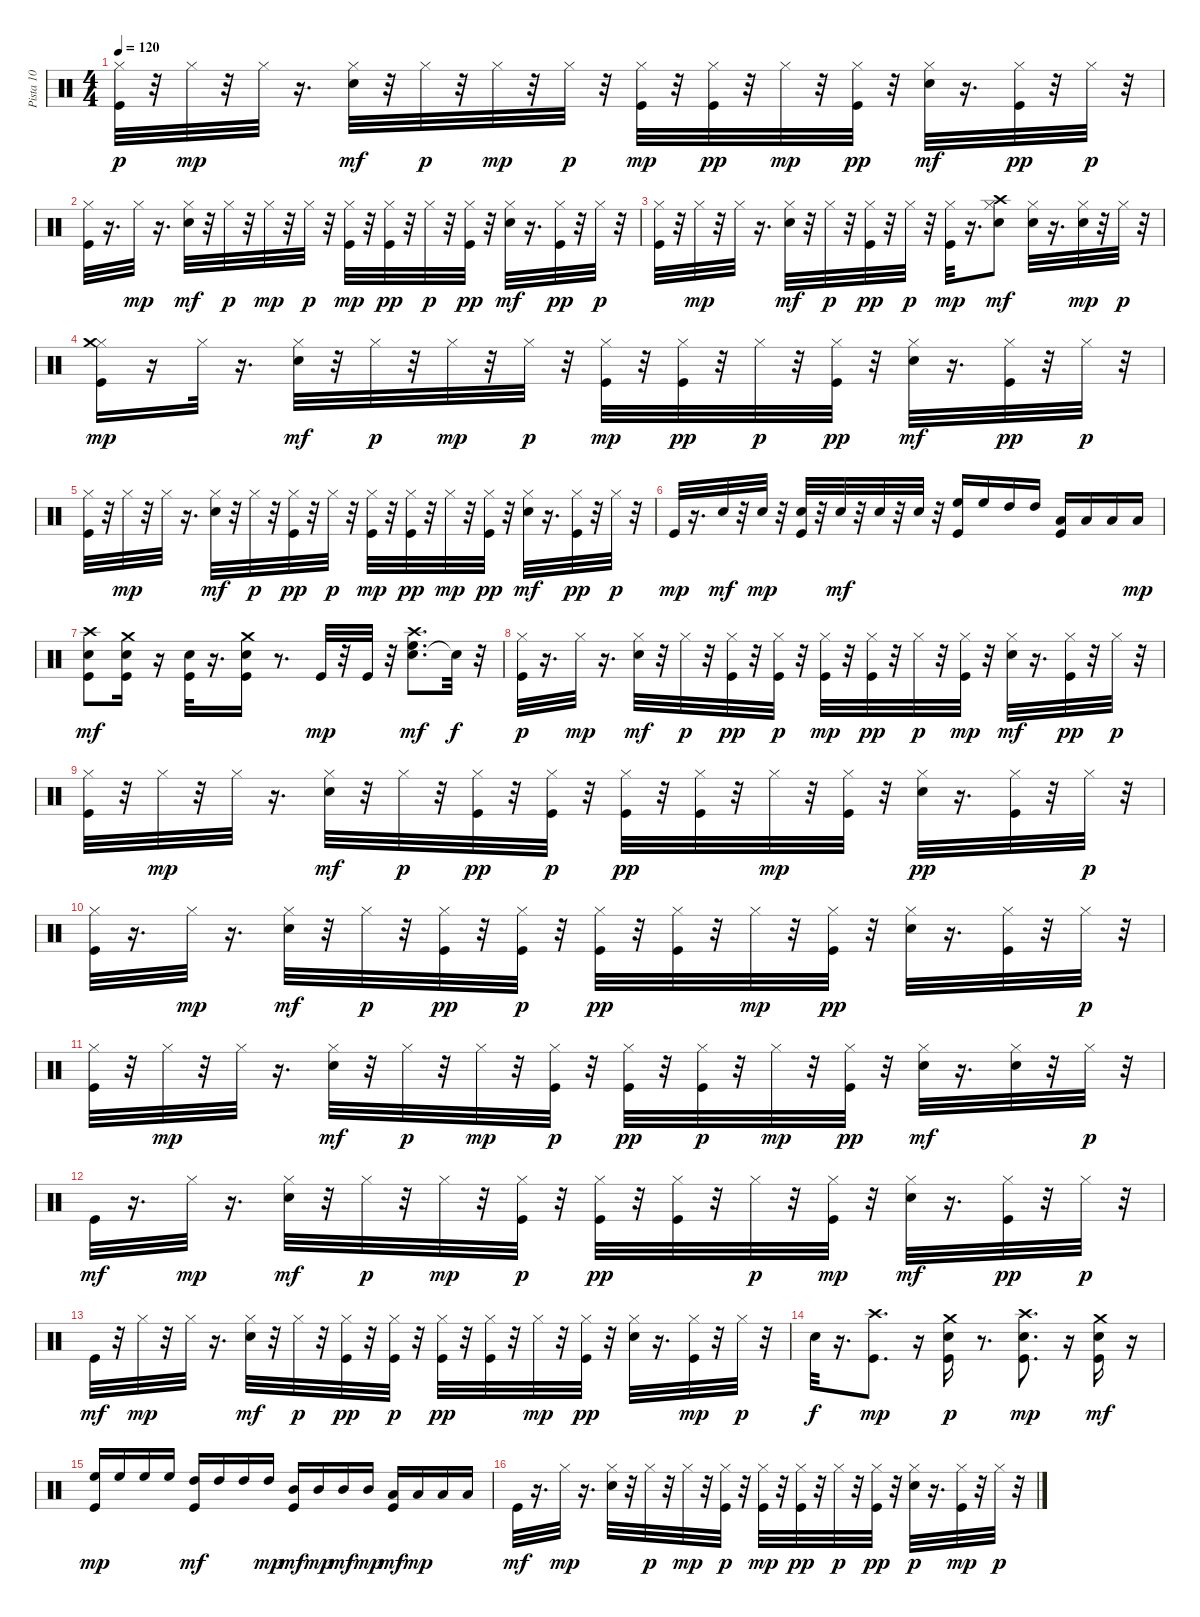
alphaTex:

\track ("Pista 10" "Pista 10") {instrument percussion}
\staff {score}
\articulation defaults
\ts (4 4)
\tempo 120
\clef neutral
\ks c
("Kick (hit)" "Hi-Hat (closed)").32{dy p} r.32 "Hi-Hat (closed)".32{dy mp} r.32 "Hi-Hat (closed)".32 r.16{d} ("Hi-Hat (closed)" "Snare (hit) 2").32{dy mf} r.32 "Hi-Hat (closed)".32{dy p} r.32 "Hi-Hat (closed)".32{dy mp} r.32 "Hi-Hat (closed)".32{dy p} r.32 ("Kick (hit)" "Hi-Hat (closed)").32{dy mp} r.32 ("Kick (hit)" "Hi-Hat (closed)").32{dy pp} r.32 "Hi-Hat (closed)".32{dy mp} r.32 ("Kick (hit)" "Hi-Hat (closed)").32{dy pp} r.32 ("Hi-Hat (closed)" "Snare (hit) 2").32{dy mf} r.16{d} ("Hi-Hat (closed)" "Kick (hit)").32{dy pp} r.32 "Hi-Hat (closed)".32{dy p} r.32 |
("Kick (hit)" "Hi-Hat (closed)").32 r.16{d} "Hi-Hat (closed)".32{dy mp} r.16{d} ("Hi-Hat (closed)" "Snare (hit) 2").32{dy mf} r.32 "Hi-Hat (closed)".32{dy p} r.32 "Hi-Hat (closed)".32{dy mp} r.32 "Hi-Hat (closed)".32{dy p} r.32 ("Kick (hit)" "Hi-Hat (closed)").32{dy mp} r.32 ("Hi-Hat (closed)" "Kick (hit)").32{dy pp} r.32 "Hi-Hat (closed)".32{dy p} r.32 ("Hi-Hat (closed)" "Kick (hit)").32{dy pp} r.32 ("Hi-Hat (closed)" "Snare (hit) 2").32{dy mf} r.16{d} ("Hi-Hat (closed)" "Kick (hit)").32{dy pp} r.32 "Hi-Hat (closed)".32{dy p} r.32 |
("Kick (hit)" "Hi-Hat (closed)").32 r.32 "Hi-Hat (closed)".32{dy mp} r.32 "Hi-Hat (closed)".32 r.16{d} ("Hi-Hat (closed)" "Snare (hit) 2").32{dy mf} r.32 "Hi-Hat (closed)".32{dy p} r.32 ("Hi-Hat (closed)" "Kick (hit)").32{dy pp} r.32 "Hi-Hat (closed)".32{dy p} r.32 ("Kick (hit)" "Hi-Hat (closed)").32{dy mp} r.16{d} ("Hi-Hat (closed)" "Crash high (hit)" "Snare (hit) 2").8{dy mf} ("Hi-Hat (closed)" "Snare (hit) 2").32 r.16{d} ("Hi-Hat (closed)" "Snare (hit) 2").32{dy mp} r.32 "Hi-Hat (closed)".32{dy p} r.32 |
("Kick (hit)" "Hi-Hat (closed)" "Crash medium (hit)").16{dy mp} r.16 "Hi-Hat (closed)".32 r.16{d} ("Hi-Hat (closed)" "Snare (hit) 2").32{dy mf} r.32 "Hi-Hat (closed)".32{dy p} r.32 "Hi-Hat (closed)".32{dy mp} r.32 "Hi-Hat (closed)".32{dy p} r.32 ("Kick (hit)" "Hi-Hat (closed)").32{dy mp} r.32 ("Hi-Hat (closed)" "Kick (hit)").32{dy pp} r.32 "Hi-Hat (closed)".32{dy p} r.32 ("Hi-Hat (closed)" "Kick (hit)").32{dy pp} r.32 ("Hi-Hat (closed)" "Snare (hit) 2").32{dy mf} r.16{d} ("Hi-Hat (closed)" "Kick (hit)").32{dy pp} r.32 "Hi-Hat (closed)".32{dy p} r.32 |
("Kick (hit)" "Hi-Hat (closed)").32 r.32 "Hi-Hat (closed)".32{dy mp} r.32 "Hi-Hat (closed)".32 r.16{d} ("Hi-Hat (closed)" "Snare (hit) 2").32{dy mf} r.32 "Hi-Hat (closed)".32{dy p} r.32 ("Hi-Hat (closed)" "Kick (hit)").32{dy pp} r.32 "Hi-Hat (closed)".32{dy p} r.32 ("Kick (hit)" "Hi-Hat (closed)").32{dy mp} r.32 ("Hi-Hat (closed)" "Kick (hit)").32{dy pp} r.32 "Hi-Hat (closed)".32{dy mp} r.32 ("Hi-Hat (closed)" "Kick (hit)").32{dy pp} r.32 ("Hi-Hat (closed)" "Snare (hit) 2").32{dy mf} r.16{d} ("Hi-Hat (closed)" "Kick (hit)").32{dy pp} r.32 "Hi-Hat (closed)".32{dy p} r.32 |
"Kick (hit)".32{dy mp} r.16{d} "Snare (hit) 2".32{dy mf} r.32 "Snare (hit) 2".32{dy mp} r.32 ("Kick (hit)" "Snare (hit) 2").32 r.32 "Snare (hit) 2".32{dy mf} r.32 "Snare (hit) 2".32 r.32 "Snare (hit) 2".32 r.32 ("Kick (hit)" "High Floor Tom (hit)").16 "High Floor Tom (hit)".16 "High Tom (hit)".16 "High Tom (hit)".16 ("Kick (hit)" "Low Tom (hit)").16 "Low Tom (hit)".16 "Low Tom (hit)".16 "Low Tom (hit)".16{dy mp} |
("Kick (hit)" "Crash high (hit)" "Snare (hit) 2").8{dy mf} ("Kick (hit)" "Crash medium (hit)" "Snare (hit) 2").16 r.16 ("Kick (hit)" "Snare (hit) 2").32 r.16{d} ("Kick (hit)" "Crash medium (hit)" "Snare (hit) 2").16 r.8{d} "Kick (hit)".32{dy mp} r.32 "Kick (hit)".32 r.32 ("Snare (hit) 2" "Crash high (hit)" "High Floor Tom (hit)").8{d dy mf} "Snare (hit)"{t}.32{dy f} r.32 |
("Kick (hit)" "Hi-Hat (closed)").32{dy p} r.16{d} "Hi-Hat (closed)".32{dy mp} r.16{d} ("Hi-Hat (closed)" "Snare (hit) 2").32{dy mf} r.32 "Hi-Hat (closed)".32{dy p} r.32 ("Hi-Hat (closed)" "Kick (hit)").32{dy pp} r.32 ("Kick (hit)" "Hi-Hat (closed)").32{dy p} r.32 ("Kick (hit)" "Hi-Hat (closed)").32{dy mp} r.32 ("Hi-Hat (closed)" "Kick (hit)").32{dy pp} r.32 "Hi-Hat (closed)".32{dy p} r.32 ("Hi-Hat (closed)" "Kick (hit)").32{dy mp} r.32 ("Hi-Hat (closed)" "Snare (hit) 2").32{dy mf} r.16{d} ("Hi-Hat (closed)" "Kick (hit)").32{dy pp} r.32 "Hi-Hat (closed)".32{dy p} r.32 |
("Kick (hit)" "Hi-Hat (closed)").32 r.32 "Hi-Hat (closed)".32{dy mp} r.32 "Hi-Hat (closed)".32 r.16{d} ("Hi-Hat (closed)" "Snare (hit) 2").32{dy mf} r.32 "Hi-Hat (closed)".32{dy p} r.32 ("Hi-Hat (closed)" "Kick (hit)").32{dy pp} r.32 ("Kick (hit)" "Hi-Hat (closed)").32{dy p} r.32 ("Kick (hit)" "Hi-Hat (closed)").32{dy pp} r.32 ("Hi-Hat (closed)" "Kick (hit)").32 r.32 "Hi-Hat (closed)".32{dy mp} r.32 ("Hi-Hat (closed)" "Kick (hit)").32 r.32 ("Snare (hit) 2" "Hi-Hat (closed)").32{dy pp} r.16{d} ("Hi-Hat (closed)" "Kick (hit)").32 r.32 "Hi-Hat (closed)".32{dy p} r.32 |
("Kick (hit)" "Hi-Hat (closed)").32 r.16{d} "Hi-Hat (closed)".32{dy mp} r.16{d} ("Hi-Hat (closed)" "Snare (hit) 2").32{dy mf} r.32 "Hi-Hat (closed)".32{dy p} r.32 ("Hi-Hat (closed)" "Kick (hit)").32{dy pp} r.32 ("Kick (hit)" "Hi-Hat (closed)").32{dy p} r.32 ("Kick (hit)" "Hi-Hat (closed)").32{dy pp} r.32 ("Hi-Hat (closed)" "Kick (hit)").32 r.32 "Hi-Hat (closed)".32{dy mp} r.32 ("Hi-Hat (closed)" "Kick (hit)").32{dy pp} r.32 ("Snare (hit) 2" "Hi-Hat (closed)").32 r.16{d} ("Hi-Hat (closed)" "Kick (hit)").32 r.32 "Hi-Hat (closed)".32{dy p} r.32 |
("Kick (hit)" "Hi-Hat (closed)").32 r.32 "Hi-Hat (closed)".32{dy mp} r.32 "Hi-Hat (closed)".32 r.16{d} ("Hi-Hat (closed)" "Snare (hit) 2").32{dy mf} r.32 "Hi-Hat (closed)".32{dy p} r.32 "Hi-Hat (closed)".32{dy mp} r.32 ("Kick (hit)" "Hi-Hat (closed)").32{dy p} r.32 ("Kick (hit)" "Hi-Hat (closed)").32{dy pp} r.32 ("Kick (hit)" "Hi-Hat (closed)").32{dy p} r.32 "Hi-Hat (closed)".32{dy mp} r.32 ("Kick (hit)" "Hi-Hat (closed)").32{dy pp} r.32 ("Hi-Hat (closed)" "Snare (hit) 2").32{dy mf} r.16{d} ("Hi-Hat (closed)" "Snare (hit) 2").32 r.32 "Hi-Hat (closed)".32{dy p} r.32 |
"Kick (hit)".32{dy mf} r.16{d} "Hi-Hat (closed)".32{dy mp} r.16{d} ("Hi-Hat (closed)" "Snare (hit) 2").32{dy mf} r.32 "Hi-Hat (closed)".32{dy p} r.32 "Hi-Hat (closed)".32{dy mp} r.32 ("Kick (hit)" "Hi-Hat (closed)").32{dy p} r.32 ("Kick (hit)" "Hi-Hat (closed)").32{dy pp} r.32 ("Hi-Hat (closed)" "Kick (hit)").32 r.32 "Hi-Hat (closed)".32{dy p} r.32 ("Hi-Hat (closed)" "Kick (hit)").32{dy mp} r.32 ("Hi-Hat (closed)" "Snare (hit) 2").32{dy mf} r.16{d} ("Hi-Hat (closed)" "Kick (hit)").32{dy pp} r.32 "Hi-Hat (closed)".32{dy p} r.32 |
"Kick (hit)".32{dy mf} r.32 "Hi-Hat (closed)".32{dy mp} r.32 "Hi-Hat (closed)".32 r.16{d} ("Hi-Hat (closed)" "Snare (hit) 2").32{dy mf} r.32 "Hi-Hat (closed)".32{dy p} r.32 ("Hi-Hat (closed)" "Kick (hit)").32{dy pp} r.32 ("Kick (hit)" "Hi-Hat (closed)").32{dy p} r.32 ("Kick (hit)" "Hi-Hat (closed)").32{dy pp} r.32 ("Hi-Hat (closed)" "Kick (hit)").32 r.32 "Hi-Hat (closed)".32{dy mp} r.32 ("Hi-Hat (closed)" "Kick (hit)").32{dy pp} r.32 ("Snare (hit) 2" "Hi-Hat (closed)").32 r.16{d} ("Kick (hit)" "Hi-Hat (closed)").32{dy mp} r.32 "Hi-Hat (closed)".32{dy p} r.32 |
"Snare (hit) 2".32{dy f} r.16{d} ("Kick (hit)" "Crash high (hit)").8{d dy mp} r.16 ("Kick (hit)" "Crash medium (hit)" "Snare (hit) 2").16{dy p} r.8{d} ("Kick (hit)" "Crash high (hit)" "Snare (hit) 2").8{d dy mp} r.16 ("Kick (hit)" "Crash medium (hit)" "Snare (hit) 2").16{dy mf} r.16 |
("Kick (hit)" "High Floor Tom (hit)").16{dy mp} "High Floor Tom (hit)".16 "High Floor Tom (hit)".16 "High Floor Tom (hit)".16 ("Kick (hit)" "High Tom (hit)").16{dy mf} "High Tom (hit)".16 "High Tom (hit)".16 "High Tom (hit)".16{dy mp} ("Kick (hit)" "Mid Tom (hit)").16{dy mf} "Mid Tom (hit)".16{dy mp} "Mid Tom (hit)".16{dy mf} "Mid Tom (hit)".16{dy mp} ("Kick (hit)" "Low Tom (hit)").16{dy mf} "Low Tom (hit)".16{dy mp} "Low Tom (hit)".16 "Low Tom (hit)".16 |
"Kick (hit)".32{dy mf} r.16{d} "Hi-Hat (closed)".32{dy mp} r.16{d} ("Hi-Hat (closed)" "Snare (hit) 2").32 r.32 "Hi-Hat (closed)".32{dy p} r.32 "Hi-Hat (closed)".32{dy mp} r.32 ("Kick (hit)" "Hi-Hat (closed)").32{dy p} r.32 ("Kick (hit)" "Hi-Hat (closed)").32{dy mp} r.32 ("Hi-Hat (closed)" "Kick (hit)").32{dy pp} r.32 "Hi-Hat (closed)".32{dy p} r.32 ("Hi-Hat (closed)" "Kick (hit)").32{dy pp} r.32 ("Hi-Hat (closed)" "Snare (hit) 2").32{dy p} r.16{d} ("Hi-Hat (closed)" "Kick (hit)").32{dy mp} r.32 "Hi-Hat (closed)".32{dy p} r.32
